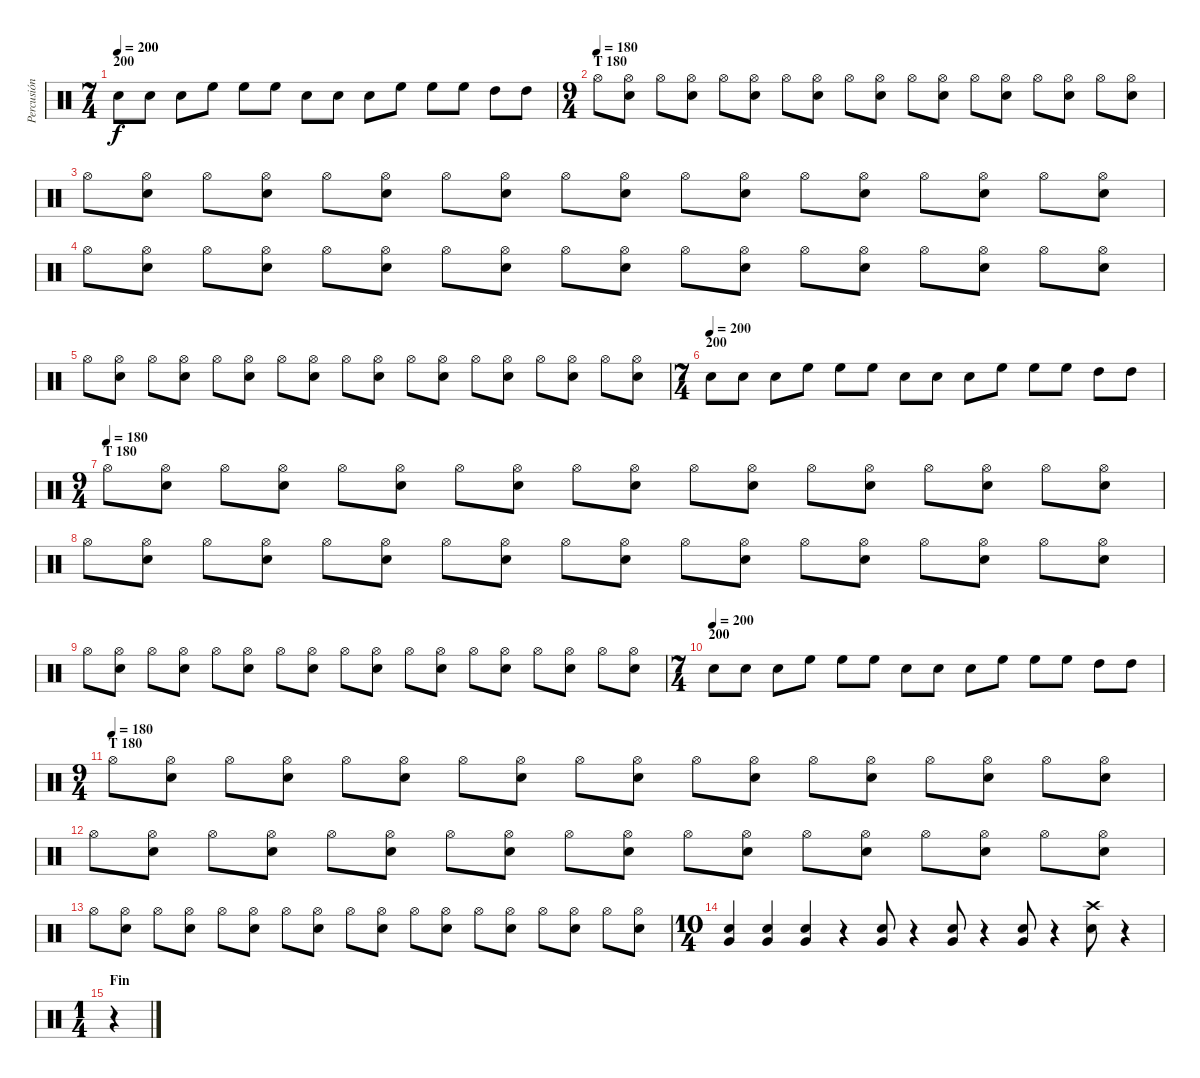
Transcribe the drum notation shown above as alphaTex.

\track ("Percusión - Compa" "Percusión ") {instrument percussion}
\staff {score}
\articulation defaults
\ts (7 4)
\section ("" "200")
\tempo 200
\clef neutral
\ks c "Electric Snare (hit)".8{dy f} "Electric Snare (hit)".8 "Electric Snare (hit)".8 "High Floor Tom (hit)".8 "High Floor Tom (hit)".8 "High Floor Tom (hit)".8 "Electric Snare (hit)".8 "Electric Snare (hit)".8 "Electric Snare (hit)".8 "High Floor Tom (hit)".8 "High Floor Tom (hit)".8 "High Floor Tom (hit)".8 "High Tom (hit)".8 "High Tom (hit)".8
|
\ts (9 4)
\section ("" "T 180")
\tempo (180)
"Hi-Hat (open)".8 ("Hi-Hat (open)" "Electric Snare (hit)").8 "Hi-Hat (open)".8 ("Hi-Hat (open)" "Electric Snare (hit)").8 "Hi-Hat (open)".8 ("Hi-Hat (open)" "Electric Snare (hit)").8 "Hi-Hat (open)".8 ("Hi-Hat (open)" "Electric Snare (hit)").8 "Hi-Hat (open)".8 ("Hi-Hat (open)" "Electric Snare (hit)").8 "Hi-Hat (open)".8 ("Hi-Hat (open)" "Electric Snare (hit)").8 "Hi-Hat (open)".8 ("Hi-Hat (open)" "Electric Snare (hit)").8 "Hi-Hat (open)".8 ("Hi-Hat (open)" "Electric Snare (hit)").8 "Hi-Hat (open)".8 ("Hi-Hat (open)" "Electric Snare (hit)").8 |
"Hi-Hat (open)".8 ("Hi-Hat (open)" "Electric Snare (hit)").8 "Hi-Hat (open)".8 ("Hi-Hat (open)" "Electric Snare (hit)").8 "Hi-Hat (open)".8 ("Hi-Hat (open)" "Electric Snare (hit)").8 "Hi-Hat (open)".8 ("Hi-Hat (open)" "Electric Snare (hit)").8 "Hi-Hat (open)".8 ("Hi-Hat (open)" "Electric Snare (hit)").8 "Hi-Hat (open)".8 ("Hi-Hat (open)" "Electric Snare (hit)").8 "Hi-Hat (open)".8 ("Hi-Hat (open)" "Electric Snare (hit)").8 "Hi-Hat (open)".8 ("Hi-Hat (open)" "Electric Snare (hit)").8 "Hi-Hat (open)".8 ("Hi-Hat (open)" "Electric Snare (hit)").8 |
"Hi-Hat (open)".8 ("Hi-Hat (open)" "Electric Snare (hit)").8 "Hi-Hat (open)".8 ("Hi-Hat (open)" "Electric Snare (hit)").8 "Hi-Hat (open)".8 ("Hi-Hat (open)" "Electric Snare (hit)").8 "Hi-Hat (open)".8 ("Hi-Hat (open)" "Electric Snare (hit)").8 "Hi-Hat (open)".8 ("Hi-Hat (open)" "Electric Snare (hit)").8 "Hi-Hat (open)".8 ("Hi-Hat (open)" "Electric Snare (hit)").8 "Hi-Hat (open)".8 ("Hi-Hat (open)" "Electric Snare (hit)").8 "Hi-Hat (open)".8 ("Hi-Hat (open)" "Electric Snare (hit)").8 "Hi-Hat (open)".8 ("Hi-Hat (open)" "Electric Snare (hit)").8 |
"Hi-Hat (open)".8 ("Hi-Hat (open)" "Electric Snare (hit)").8 "Hi-Hat (open)".8 ("Hi-Hat (open)" "Electric Snare (hit)").8 "Hi-Hat (open)".8 ("Hi-Hat (open)" "Electric Snare (hit)").8 "Hi-Hat (open)".8 ("Hi-Hat (open)" "Electric Snare (hit)").8 "Hi-Hat (open)".8 ("Hi-Hat (open)" "Electric Snare (hit)").8 "Hi-Hat (open)".8 ("Hi-Hat (open)" "Electric Snare (hit)").8 "Hi-Hat (open)".8 ("Hi-Hat (open)" "Electric Snare (hit)").8 "Hi-Hat (open)".8 ("Hi-Hat (open)" "Electric Snare (hit)").8 "Hi-Hat (open)".8 ("Hi-Hat (open)" "Electric Snare (hit)").8 |
\ts (7 4)
\section ("" "200")
\tempo (200)
"Electric Snare (hit)".8 "Electric Snare (hit)".8 "Electric Snare (hit)".8 "High Floor Tom (hit)".8 "High Floor Tom (hit)".8 "High Floor Tom (hit)".8 "Electric Snare (hit)".8 "Electric Snare (hit)".8 "Electric Snare (hit)".8 "High Floor Tom (hit)".8 "High Floor Tom (hit)".8 "High Floor Tom (hit)".8 "High Tom (hit)".8 "High Tom (hit)".8 |
\ts (9 4)
\section ("" "T 180")
\tempo (180)
"Hi-Hat (open)".8 ("Hi-Hat (open)" "Electric Snare (hit)").8 "Hi-Hat (open)".8 ("Hi-Hat (open)" "Electric Snare (hit)").8 "Hi-Hat (open)".8 ("Hi-Hat (open)" "Electric Snare (hit)").8 "Hi-Hat (open)".8 ("Hi-Hat (open)" "Electric Snare (hit)").8 "Hi-Hat (open)".8 ("Hi-Hat (open)" "Electric Snare (hit)").8 "Hi-Hat (open)".8 ("Hi-Hat (open)" "Electric Snare (hit)").8 "Hi-Hat (open)".8 ("Hi-Hat (open)" "Electric Snare (hit)").8 "Hi-Hat (open)".8 ("Hi-Hat (open)" "Electric Snare (hit)").8 "Hi-Hat (open)".8 ("Hi-Hat (open)" "Electric Snare (hit)").8 |
"Hi-Hat (open)".8 ("Hi-Hat (open)" "Electric Snare (hit)").8 "Hi-Hat (open)".8 ("Hi-Hat (open)" "Electric Snare (hit)").8 "Hi-Hat (open)".8 ("Hi-Hat (open)" "Electric Snare (hit)").8 "Hi-Hat (open)".8 ("Hi-Hat (open)" "Electric Snare (hit)").8 "Hi-Hat (open)".8 ("Hi-Hat (open)" "Electric Snare (hit)").8 "Hi-Hat (open)".8 ("Hi-Hat (open)" "Electric Snare (hit)").8 "Hi-Hat (open)".8 ("Hi-Hat (open)" "Electric Snare (hit)").8 "Hi-Hat (open)".8 ("Hi-Hat (open)" "Electric Snare (hit)").8 "Hi-Hat (open)".8 ("Hi-Hat (open)" "Electric Snare (hit)").8 |
"Hi-Hat (open)".8 ("Hi-Hat (open)" "Electric Snare (hit)").8 "Hi-Hat (open)".8 ("Hi-Hat (open)" "Electric Snare (hit)").8 "Hi-Hat (open)".8 ("Hi-Hat (open)" "Electric Snare (hit)").8 "Hi-Hat (open)".8 ("Hi-Hat (open)" "Electric Snare (hit)").8 "Hi-Hat (open)".8 ("Hi-Hat (open)" "Electric Snare (hit)").8 "Hi-Hat (open)".8 ("Hi-Hat (open)" "Electric Snare (hit)").8 "Hi-Hat (open)".8 ("Hi-Hat (open)" "Electric Snare (hit)").8 "Hi-Hat (open)".8 ("Hi-Hat (open)" "Electric Snare (hit)").8 "Hi-Hat (open)".8 ("Hi-Hat (open)" "Electric Snare (hit)").8 |
\ts (7 4)
\section ("" "200")
\tempo (200)
"Electric Snare (hit)".8 "Electric Snare (hit)".8 "Electric Snare (hit)".8 "High Floor Tom (hit)".8 "High Floor Tom (hit)".8 "High Floor Tom (hit)".8 "Electric Snare (hit)".8 "Electric Snare (hit)".8 "Electric Snare (hit)".8 "High Floor Tom (hit)".8 "High Floor Tom (hit)".8 "High Floor Tom (hit)".8 "High Tom (hit)".8 "High Tom (hit)".8 |
\ts (9 4)
\section ("" "T 180")
\tempo (180)
"Hi-Hat (open)".8 ("Hi-Hat (open)" "Electric Snare (hit)").8 "Hi-Hat (open)".8 ("Hi-Hat (open)" "Electric Snare (hit)").8 "Hi-Hat (open)".8 ("Hi-Hat (open)" "Electric Snare (hit)").8 "Hi-Hat (open)".8 ("Hi-Hat (open)" "Electric Snare (hit)").8 "Hi-Hat (open)".8 ("Hi-Hat (open)" "Electric Snare (hit)").8 "Hi-Hat (open)".8 ("Hi-Hat (open)" "Electric Snare (hit)").8 "Hi-Hat (open)".8 ("Hi-Hat (open)" "Electric Snare (hit)").8 "Hi-Hat (open)".8 ("Hi-Hat (open)" "Electric Snare (hit)").8 "Hi-Hat (open)".8 ("Hi-Hat (open)" "Electric Snare (hit)").8 |
"Hi-Hat (open)".8 ("Hi-Hat (open)" "Electric Snare (hit)").8 "Hi-Hat (open)".8 ("Hi-Hat (open)" "Electric Snare (hit)").8 "Hi-Hat (open)".8 ("Hi-Hat (open)" "Electric Snare (hit)").8 "Hi-Hat (open)".8 ("Hi-Hat (open)" "Electric Snare (hit)").8 "Hi-Hat (open)".8 ("Hi-Hat (open)" "Electric Snare (hit)").8 "Hi-Hat (open)".8 ("Hi-Hat (open)" "Electric Snare (hit)").8 "Hi-Hat (open)".8 ("Hi-Hat (open)" "Electric Snare (hit)").8 "Hi-Hat (open)".8 ("Hi-Hat (open)" "Electric Snare (hit)").8 "Hi-Hat (open)".8 ("Hi-Hat (open)" "Electric Snare (hit)").8 |
"Hi-Hat (open)".8 ("Hi-Hat (open)" "Electric Snare (hit)").8 "Hi-Hat (open)".8 ("Hi-Hat (open)" "Electric Snare (hit)").8 "Hi-Hat (open)".8 ("Hi-Hat (open)" "Electric Snare (hit)").8 "Hi-Hat (open)".8 ("Hi-Hat (open)" "Electric Snare (hit)").8 "Hi-Hat (open)".8 ("Hi-Hat (open)" "Electric Snare (hit)").8 "Hi-Hat (open)".8 ("Hi-Hat (open)" "Electric Snare (hit)").8 "Hi-Hat (open)".8 ("Hi-Hat (open)" "Electric Snare (hit)").8 "Hi-Hat (open)".8 ("Hi-Hat (open)" "Electric Snare (hit)").8 "Hi-Hat (open)".8 ("Hi-Hat (open)" "Electric Snare (hit)").8 |
\ts (10 4)
("Electric Snare (hit)" "Very Low Tom (hit)").4 ("Electric Snare (hit)" "Very Low Tom (hit)").4 ("Electric Snare (hit)" "Very Low Tom (hit)").4 r.4 ("Electric Snare (hit)" "Very Low Tom (hit)").8 r.4 ("Electric Snare (hit)" "Very Low Tom (hit)").8 r.4 ("Electric Snare (hit)" "Very Low Tom (hit)").8 r.4 ("Crash high (hit)" "Electric Snare (hit)").8 r.4 |
\ts (1 4)
\section ("" "Fin")
r.4
